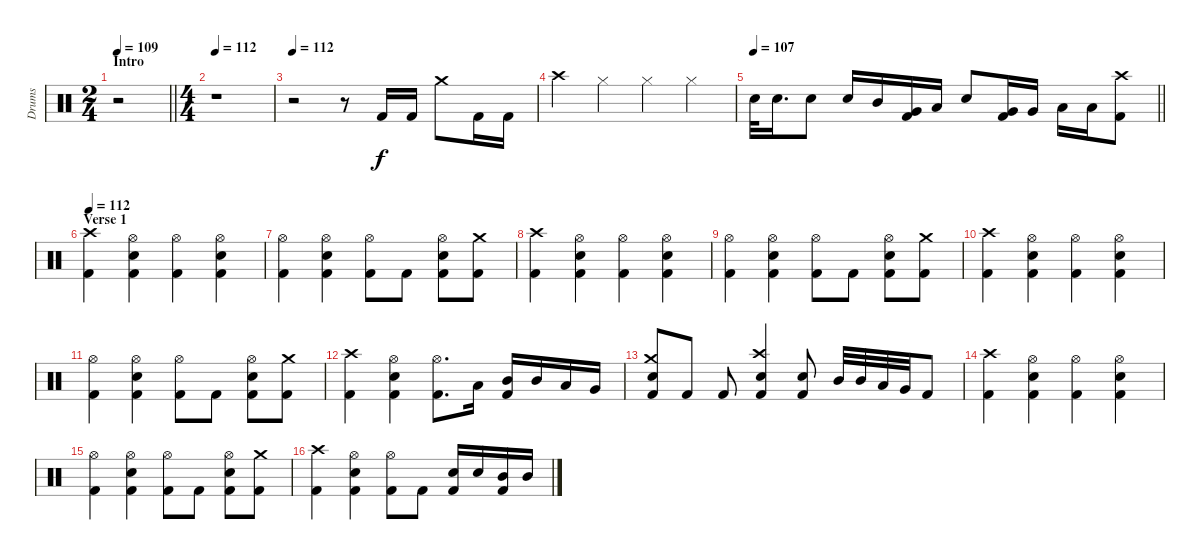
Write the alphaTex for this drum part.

\track ("Drums" "Drums") {instrument percussion}
\staff {score}
\articulation defaults
\ts (2 4)
\section ("" "Intro")
\tempo 109
\clef neutral
\barLineRight lightlight
\ks c
r.2{dy f} |
\ts (4 4)
\tempo 112
r.1 |
\tempo 112
r.2 r.8 "Kick (hit) 2".16 "Kick (hit) 2".16 "Crash medium (hit)".8 "Kick (hit) 2".16 "Kick (hit) 2".16 |
"Crash high (hit)".4 "Hi-Hat (closed)".4 "Hi-Hat (closed)".4 "Hi-Hat (closed)".4 |
\tempo 107
\barLineRight lightlight "Snare (hit) 2".32 "Snare (hit) 2".16{d} "Snare (hit) 2".8 "Snare (hit) 2".16 "Mid Tom (hit)".16
("Kick (hit) 2" "Very Low Tom (hit)").16 "Low Floor Tom (hit)".16 "Snare (hit) 2".8 ("Kick (hit) 2" "Very Low Tom (hit)").16 "Very Low Tom (hit)".16 "Low Floor Tom (hit)".16 "Low Floor Tom (hit)".16 ("Kick (hit) 2" "Crash high (hit)").8 |
\section ("" "Verse 1")
\tempo 112
("Kick (hit) 2" "Crash high (hit)").4 ("Snare (hit) 2" "Hi-Hat (open)" "Kick (hit) 2").4 ("Kick (hit) 2" "Hi-Hat (open)").4 ("Snare (hit) 2" "Kick (hit) 2" "Hi-Hat (open)").4 |
("Hi-Hat (open)" "Kick (hit) 2").4 ("Snare (hit) 2" "Hi-Hat (open)" "Kick (hit) 2").4 ("Hi-Hat (open)" "Kick (hit) 2").8 "Kick (hit) 2".8 ("Snare (hit) 2" "Hi-Hat (open)" "Kick (hit) 2").8 ("Kick (hit) 2" "Crash medium (hit)").8 |
("Kick (hit) 2" "Crash high (hit)").4 ("Hi-Hat (open)" "Kick (hit) 2" "Snare (hit) 2").4 ("Hi-Hat (open)" "Kick (hit) 2").4 ("Hi-Hat (open)" "Kick (hit) 2" "Snare (hit) 2").4 |
("Hi-Hat (open)" "Kick (hit) 2").4 ("Hi-Hat (open)" "Kick (hit) 2" "Snare (hit) 2").4 ("Hi-Hat (open)" "Kick (hit) 2").8 "Kick (hit) 2".8 ("Kick (hit) 2" "Hi-Hat (open)" "Snare (hit) 2").8 ("Kick (hit) 2" "Crash medium (hit)").8 |
("Kick (hit) 2" "Crash high (hit)").4 ("Hi-Hat (open)" "Kick (hit) 2" "Snare (hit) 2").4 ("Hi-Hat (open)" "Kick (hit) 2").4 ("Snare (hit) 2" "Kick (hit) 2" "Hi-Hat (open)").4 |
("Kick (hit) 2" "Hi-Hat (open)").4 ("Snare (hit) 2" "Kick (hit) 2" "Hi-Hat (open)").4 ("Kick (hit) 2" "Hi-Hat (open)").8 "Kick (hit) 2".8 ("Kick (hit) 2" "Hi-Hat (open)" "Snare (hit) 2").8 ("Crash medium (hit)" "Kick (hit) 2").8 |
("Kick (hit) 2" "Crash high (hit)").4 ("Snare (hit) 2" "Hi-Hat (open)" "Kick (hit) 2").4 ("Hi-Hat (open)" "Kick (hit) 2").8{d} "Low Tom (hit)".16 ("Kick (hit) 2" "Mid Tom (hit)").16 "Mid Tom (hit)".16 "Low Tom (hit)".16 "Very Low Tom (hit)".16 |
("Snare (hit) 2" "Crash medium (hit)" "Kick (hit) 2").8 "Kick (hit) 2".8 "Kick (hit) 2".8 ("Snare (hit) 2" "Kick (hit) 2" "Crash high (hit)").4 ("Snare (hit) 2" "Kick (hit) 2").8 "Mid Tom (hit)".32 "Mid Tom (hit)".32 "Low Tom (hit)".32 "Very Low Tom (hit)".32 "Kick (hit) 2".8 |
("Kick (hit) 2" "Crash high (hit)").4 ("Snare (hit) 2" "Hi-Hat (open)" "Kick (hit) 2").4 ("Hi-Hat (open)" "Kick (hit) 2").4 ("Snare (hit) 2" "Hi-Hat (open)" "Kick (hit) 2").4 |
("Hi-Hat (open)" "Kick (hit) 2").4 ("Hi-Hat (open)" "Snare (hit) 2" "Kick (hit) 2").4 ("Hi-Hat (open)" "Kick (hit) 2").8 "Kick (hit) 2".8 ("Snare (hit) 2" "Hi-Hat (open)" "Kick (hit) 2").8 ("Kick (hit) 2" "Crash medium (hit)").8 |
("Crash high (hit)" "Kick (hit) 2").4 ("Hi-Hat (open)" "Kick (hit) 2" "Snare (hit) 2").4 ("Hi-Hat (open)" "Kick (hit) 2").8 "Kick (hit) 2".8 ("Kick (hit) 2" "Snare (hit) 2").16 "Snare (hit) 2".16 ("Kick (hit) 2" "Mid Tom (hit)").16 "Mid Tom (hit)".16
